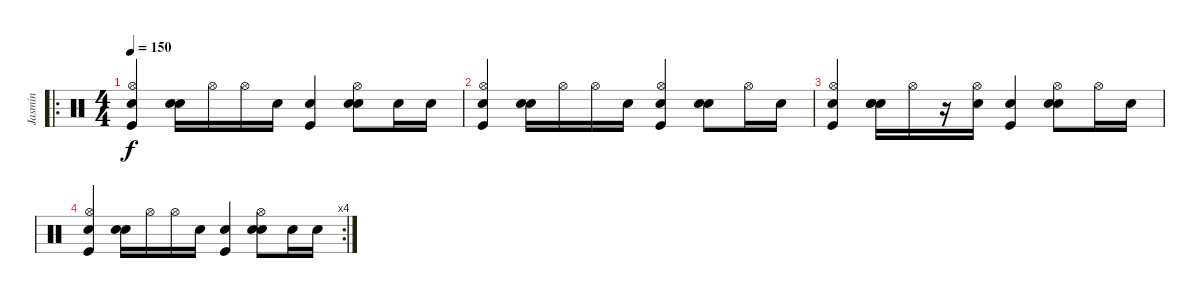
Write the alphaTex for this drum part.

\track ("Jasmin" "Jasmin") {instrument percussion}
\staff {score}
\articulation defaults
\ro
\ts (4 4)
\tempo 150
\clef neutral
\ks c
("Snare (hit) 2" "Hi-Hat (open)" "Kick (hit)").4{dy f} ("Snare (hit) 2" "Snare (hit) 2").16 "Hi-Hat (open)".16 "Hi-Hat (open)".16 "Snare (hit) 2".16 ("Snare (hit) 2" "Kick (hit)").4 ("Snare (hit) 2" "Hi-Hat (open)" "Snare (hit) 2").8 "Snare (hit) 2".16 "Snare (hit) 2".16 |
("Snare (hit) 2" "Hi-Hat (open)" "Kick (hit)").4 ("Snare (hit) 2" "Snare (hit) 2").16 "Hi-Hat (open)".16 "Hi-Hat (open)".16 "Snare (hit) 2".16 ("Snare (hit) 2" "Hi-Hat (open)" "Kick (hit)").4 ("Snare (hit) 2" "Snare (hit) 2").8 "Hi-Hat (open)".16 "Snare (hit) 2".16 |
("Snare (hit) 2" "Hi-Hat (open)" "Kick (hit)").4 ("Snare (hit) 2" "Snare (hit) 2" "Snare (hit) 2").16 "Hi-Hat (open)".16 r.16 ("Hi-Hat (open)" "Snare (hit) 2").16 ("Snare (hit) 2" "Kick (hit)").4 ("Snare (hit) 2" "Hi-Hat (open)" "Snare (hit) 2").8 "Hi-Hat (open)".16 "Snare (hit) 2".16 |
\rc 4
("Snare (hit) 2" "Hi-Hat (open)" "Kick (hit)").4 ("Snare (hit) 2" "Snare (hit) 2").16 "Hi-Hat (open)".16 "Hi-Hat (open)".16 "Snare (hit) 2".16 ("Snare (hit) 2" "Kick (hit)").4 ("Snare (hit) 2" "Hi-Hat (open)" "Snare (hit) 2").8 "Snare (hit) 2".16 "Snare (hit) 2".16
